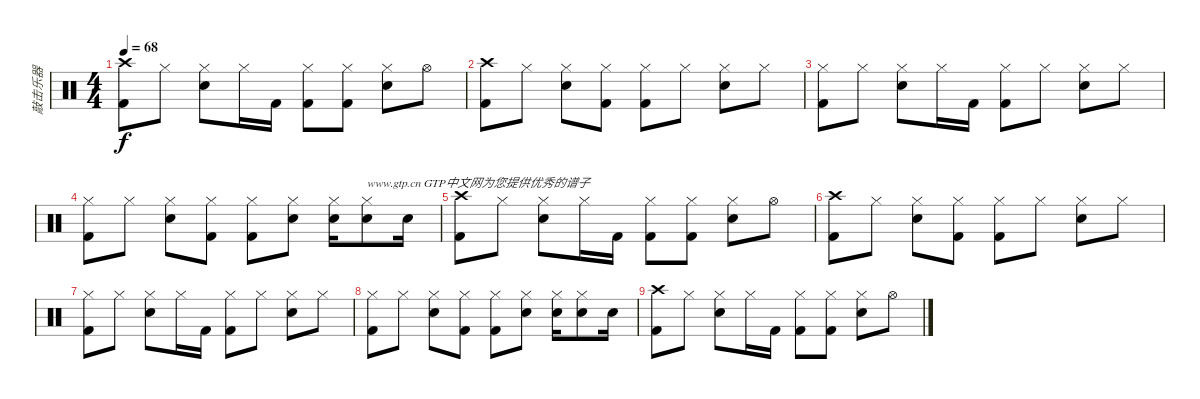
\track ("敲击乐器" "敲击乐器") {instrument percussion}
\staff {score}
\articulation defaults
\ts (4 4)
\tempo 68
\clef neutral
\ks c
("Crash high (hit)" "Kick (hit) 2").8{dy f} "Hi-Hat (closed)".8 ("Hi-Hat (closed)" "Snare (hit) 2").8 "Hi-Hat (closed)".16 "Kick (hit) 2".16 ("Hi-Hat (closed)" "Kick (hit) 2").8 ("Hi-Hat (closed)" "Kick (hit) 2").8 ("Hi-Hat (closed)" "Snare (hit) 2").8 "Hi-Hat (open)".8 |
("Crash high (hit)" "Kick (hit) 2").8 "Hi-Hat (closed)".8 ("Hi-Hat (closed)" "Snare (hit) 2").8 ("Hi-Hat (closed)" "Kick (hit) 2").8 ("Hi-Hat (closed)" "Kick (hit) 2").8 "Hi-Hat (closed)".8 ("Hi-Hat (closed)" "Snare (hit) 2").8 "Hi-Hat (closed)".8 |
("Hi-Hat (closed)" "Kick (hit) 2").8 "Hi-Hat (closed)".8 ("Hi-Hat (closed)" "Snare (hit) 2").8 "Hi-Hat (closed)".16 "Kick (hit) 2".16 ("Hi-Hat (closed)" "Kick (hit) 2").8 "Hi-Hat (closed)".8 ("Hi-Hat (closed)" "Snare (hit) 2").8 "Hi-Hat (closed)".8 |
("Hi-Hat (closed)" "Kick (hit) 2").8 "Hi-Hat (closed)".8 ("Hi-Hat (closed)" "Snare (hit) 2").8 ("Hi-Hat (closed)" "Kick (hit) 2").8 ("Hi-Hat (closed)" "Kick (hit) 2").8 ("Hi-Hat (closed)" "Snare (hit) 2").8 ("Hi-Hat (closed)" "Snare (hit) 2").16 ("Hi-Hat (closed)" "Snare (hit) 2").8{txt "www.gtp.cn GTP中文网为您提供优秀的谱子"} "Snare (hit) 2".16 |
("Crash high (hit)" "Kick (hit) 2").8 "Hi-Hat (closed)".8 ("Hi-Hat (closed)" "Snare (hit) 2").8 "Hi-Hat (closed)".16 "Kick (hit) 2".16 ("Hi-Hat (closed)" "Kick (hit) 2").8 ("Hi-Hat (closed)" "Kick (hit) 2").8 ("Hi-Hat (closed)" "Snare (hit) 2").8 "Hi-Hat (open)".8 |
("Crash high (hit)" "Kick (hit) 2").8 "Hi-Hat (closed)".8 ("Hi-Hat (closed)" "Snare (hit) 2").8 ("Hi-Hat (closed)" "Kick (hit) 2").8 ("Hi-Hat (closed)" "Kick (hit) 2").8 "Hi-Hat (closed)".8 ("Hi-Hat (closed)" "Snare (hit) 2").8 "Hi-Hat (closed)".8 |
("Hi-Hat (closed)" "Kick (hit) 2").8 "Hi-Hat (closed)".8 ("Hi-Hat (closed)" "Snare (hit) 2").8 "Hi-Hat (closed)".16 "Kick (hit) 2".16 ("Hi-Hat (closed)" "Kick (hit) 2").8 "Hi-Hat (closed)".8 ("Hi-Hat (closed)" "Snare (hit) 2").8 "Hi-Hat (closed)".8 |
("Hi-Hat (closed)" "Kick (hit) 2").8 "Hi-Hat (closed)".8 ("Hi-Hat (closed)" "Snare (hit) 2").8 ("Hi-Hat (closed)" "Kick (hit) 2").8 ("Hi-Hat (closed)" "Kick (hit) 2").8 ("Hi-Hat (closed)" "Snare (hit) 2").8 ("Hi-Hat (closed)" "Snare (hit) 2").16 ("Hi-Hat (closed)" "Snare (hit) 2").8 "Snare (hit) 2".16 |
("Crash high (hit)" "Kick (hit) 2").8 "Hi-Hat (closed)".8 ("Hi-Hat (closed)" "Snare (hit) 2").8 "Hi-Hat (closed)".16 "Kick (hit) 2".16 ("Hi-Hat (closed)" "Kick (hit) 2").8 ("Hi-Hat (closed)" "Kick (hit) 2").8 ("Hi-Hat (closed)" "Snare (hit) 2").8 "Hi-Hat (open)".8
